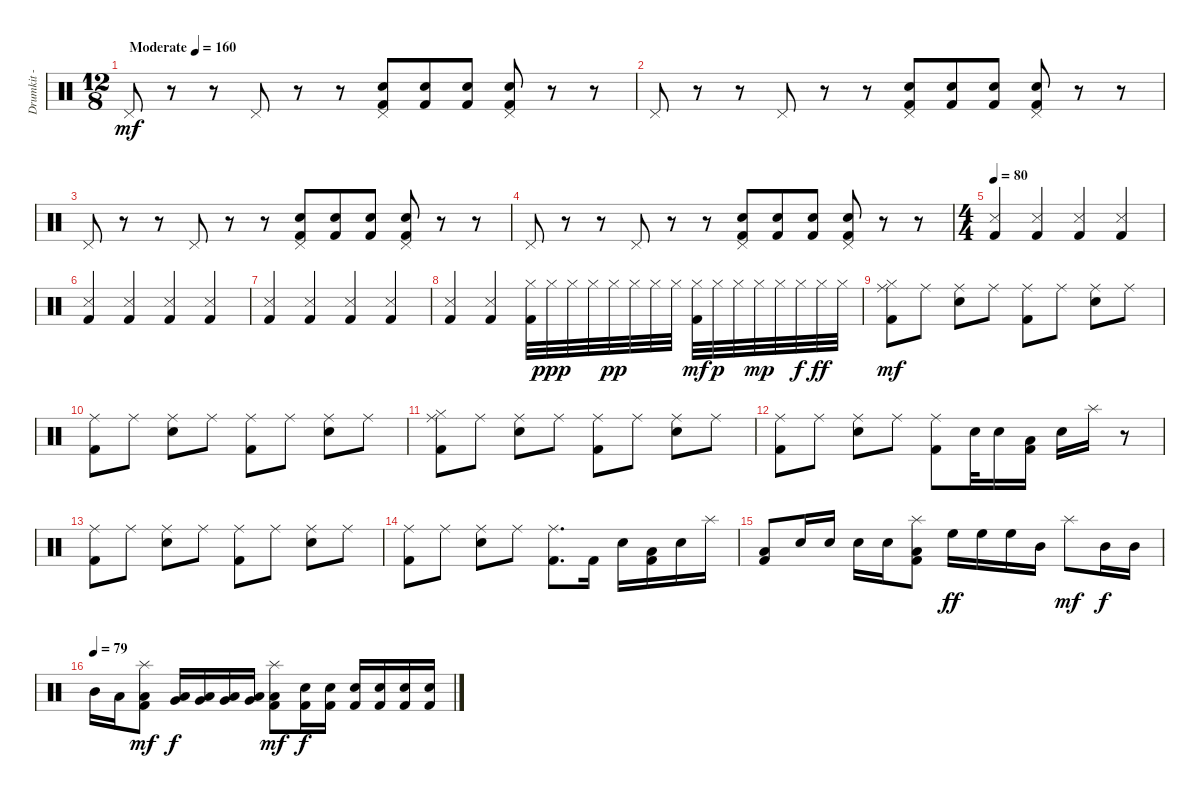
\track ("Drumkit - Dom" "Drumkit - ") {instrument percussion}
\staff {score}
\articulation defaults
\ts (12 8)
\tempo (160 "Moderate")
\clef neutral
\ks c "Pedal Hi-Hat (hit)".8{dy mf}
r.8 r.8 "Pedal Hi-Hat (hit)".8 r.8 r.8 ("Kick (hit) 2" "Snare (hit) 2" "Pedal Hi-Hat (hit)").8 ("Kick (hit) 2" "Snare (hit) 2").8 ("Kick (hit) 2" "Snare (hit) 2").8 ("Kick (hit) 2" "Snare (hit) 2" "Pedal Hi-Hat (hit)").8 r.8 r.8 |
"Pedal Hi-Hat (hit)".8 r.8 r.8 "Pedal Hi-Hat (hit)".8 r.8 r.8 ("Kick (hit) 2" "Snare (hit) 2" "Pedal Hi-Hat (hit)").8 ("Kick (hit) 2" "Snare (hit) 2").8 ("Kick (hit) 2" "Snare (hit) 2").8 ("Kick (hit) 2" "Snare (hit) 2" "Pedal Hi-Hat (hit)").8 r.8 r.8 |
"Pedal Hi-Hat (hit)".8 r.8 r.8 "Pedal Hi-Hat (hit)".8 r.8 r.8 ("Kick (hit) 2" "Snare (hit) 2" "Pedal Hi-Hat (hit)").8 ("Kick (hit) 2" "Snare (hit) 2").8 ("Kick (hit) 2" "Snare (hit) 2").8 ("Kick (hit) 2" "Snare (hit) 2" "Pedal Hi-Hat (hit)").8 r.8 r.8 |
"Pedal Hi-Hat (hit)".8 r.8 r.8 "Pedal Hi-Hat (hit)".8 r.8 r.8 ("Kick (hit) 2" "Snare (hit) 2" "Pedal Hi-Hat (hit)").8 ("Kick (hit) 2" "Snare (hit) 2").8 ("Kick (hit) 2" "Snare (hit) 2").8 ("Kick (hit) 2" "Snare (hit) 2" "Pedal Hi-Hat (hit)").8 r.8 r.8 |
\ts (4 4)
\tempo 80
("Kick (hit) 2" "Snare (side stick) 3").4 ("Kick (hit) 2" "Snare (side stick) 3").4 ("Kick (hit) 2" "Snare (side stick) 3").4 ("Kick (hit) 2" "Snare (side stick) 3").4 |
("Kick (hit) 2" "Snare (side stick) 3").4 ("Kick (hit) 2" "Snare (side stick) 3").4 ("Kick (hit) 2" "Snare (side stick) 3").4 ("Kick (hit) 2" "Snare (side stick) 3").4 |
("Kick (hit) 2" "Snare (side stick) 3").4 ("Kick (hit) 2" "Snare (side stick) 3").4 ("Kick (hit) 2" "Snare (side stick) 3").4 ("Kick (hit) 2" "Snare (side stick) 3").4 |
("Kick (hit) 2" "Snare (side stick) 3").4 ("Kick (hit) 2" "Snare (side stick) 3").4 ("Kick (hit) 2" "Hi-Hat (closed)").32 "Hi-Hat (closed)".32{dy ppp} "Hi-Hat (closed)".32 "Hi-Hat (closed)".32 "Hi-Hat (closed)".32{dy pp} "Hi-Hat (closed)".32 "Hi-Hat (closed)".32 "Hi-Hat (closed)".32 ("Kick (hit) 2" "Hi-Hat (closed)").32{dy mf} "Hi-Hat (closed)".32{dy p} "Hi-Hat (closed)".32 "Hi-Hat (closed)".32{dy mp} "Hi-Hat (closed)".32 "Hi-Hat (closed)".32{dy f} "Hi-Hat (closed)".32{dy ff} "Hi-Hat (closed)".32 |
("Ride (middle)" "Kick (hit) 2" "Hi-Hat (closed)").8{dy mf} "Ride (middle)".8 ("Ride (middle)" "Snare (hit) 2").8 "Ride (middle)".8 ("Ride (middle)" "Kick (hit) 2").8 "Ride (middle)".8 ("Ride (middle)" "Snare (hit) 2").8 "Ride (middle)".8 |
("Ride (middle)" "Kick (hit) 2").8 "Ride (middle)".8 ("Ride (middle)" "Snare (hit) 2").8 "Ride (middle)".8 ("Ride (middle)" "Kick (hit) 2").8 "Ride (middle)".8 ("Ride (middle)" "Snare (hit) 2").8 "Ride (middle)".8 |
("Ride (middle)" "Kick (hit) 2" "Hi-Hat (closed)").8 "Ride (middle)".8 ("Ride (middle)" "Snare (hit) 2").8 "Ride (middle)".8 ("Ride (middle)" "Kick (hit) 2").8 "Ride (middle)".8 ("Ride (middle)" "Snare (hit) 2").8 "Ride (middle)".8 |
("Ride (middle)" "Kick (hit) 2").8 "Ride (middle)".8 ("Ride (middle)" "Snare (hit) 2").8 "Ride (middle)".8 ("Ride (middle)" "Kick (hit) 2").8 "Snare (hit) 2".32 "Snare (hit) 2".16 ("Kick (hit) 2" "Low Floor Tom (hit)").16 "Snare (hit) 2".16 "Splash (hit)".16 r.8 |
("Ride (middle)" "Kick (hit) 2").8 "Ride (middle)".8 ("Ride (middle)" "Snare (hit) 2").8 "Ride (middle)".8 ("Ride (middle)" "Kick (hit) 2").8 "Ride (middle)".8 ("Ride (middle)" "Snare (hit) 2").8 "Ride (middle)".8 |
("Ride (middle)" "Kick (hit) 2").8 "Ride (middle)".8 ("Ride (middle)" "Snare (hit) 2").8 "Ride (middle)".8 ("Ride (middle)" "Kick (hit) 2").8{d} "Kick (hit) 2".16 "Snare (hit) 2".16 ("Kick (hit) 2" "Low Floor Tom (hit)").16 "Snare (hit) 2".16 "Splash (hit)".16 |
("Kick (hit) 2" "Low Floor Tom (hit)").8 "Snare (hit) 2".16 "Snare (hit) 2".16 "Snare (hit) 2".16 "Snare (hit) 2".16 ("Kick (hit) 2" "Low Floor Tom (hit)" "Splash (hit)").8 "High Floor Tom (hit)".16{dy ff} "High Floor Tom (hit)".16 "High Floor Tom (hit)".16 "Mid Tom (hit)".16 "Splash (hit)".8{dy mf} "Mid Tom (hit)".16{dy f} "Mid Tom (hit)".16 |
\tempo (79)
"Mid Tom (hit)".16 "Low Tom (hit)".16 ("Splash (hit)" "Kick (hit) 2" "Low Floor Tom (hit)").8{dy mf} ("Very Low Tom (hit)" "Low Floor Tom (hit)").16{dy f} ("Very Low Tom (hit)" "Low Floor Tom (hit)").16 ("Very Low Tom (hit)" "Low Floor Tom (hit)").16 ("Very Low Tom (hit)" "Low Floor Tom (hit)").16 ("Splash (hit)" "Low Floor Tom (hit)" "Kick (hit) 2").8{dy mf} ("Snare (hit) 2" "Kick (hit) 2").16{dy f} ("Snare (hit) 2" "Kick (hit) 2").16 ("Snare (hit) 2" "Kick (hit) 2").16 ("Snare (hit) 2" "Kick (hit) 2").16 ("Snare (hit) 2" "Kick (hit) 2").16 ("Snare (hit) 2" "Kick (hit) 2").16
